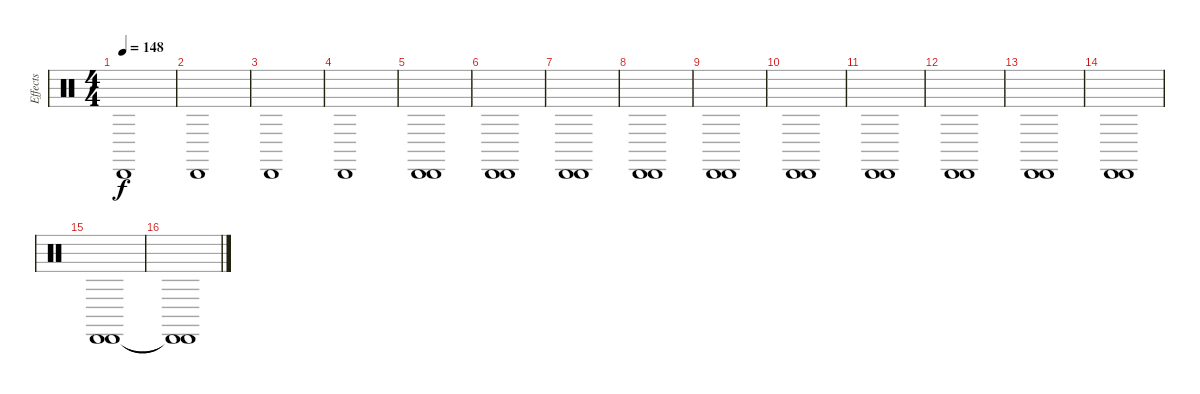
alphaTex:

\track ("Effects" "Effects") {instrument percussion}
\staff {score}
\articulation defaults
\ts (4 4)
\tempo 148
\clef neutral
\ks c "Cabasa (hit)".1{dy f}
|
"Cabasa (hit)".1 |
"Cabasa (hit)".1 |
"Cabasa (hit)".1 |
("Cabasa (hit)" "Cabasa (hit)").1 |
("Cabasa (hit)" "Cabasa (hit)").1 |
("Cabasa (hit)" "Cabasa (hit)").1 |
("Cabasa (hit)" "Cabasa (hit)").1 |
("Cabasa (hit)" "Cabasa (hit)").1 |
("Cabasa (hit)" "Cabasa (hit)").1 |
("Cabasa (hit)" "Cabasa (hit)").1 |
("Cabasa (hit)" "Cabasa (hit)").1 |
("Cabasa (hit)" "Cabasa (hit)").1 |
("Cabasa (hit)" "Cabasa (hit)").1 |
("Cabasa (hit)" "Cabasa (hit)").1 |
("Cabasa (hit)"{t} "Cabasa (hit)"{t}).1
